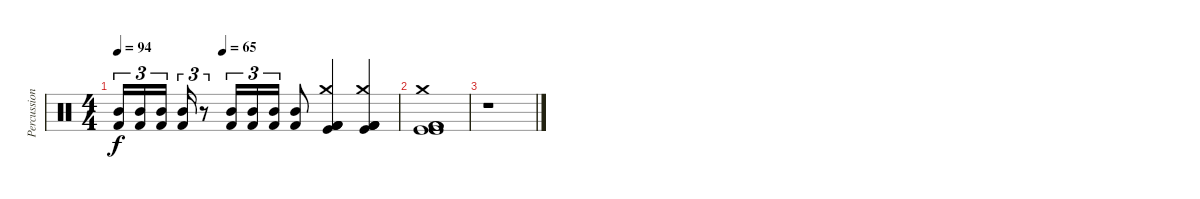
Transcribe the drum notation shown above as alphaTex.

\track ("Percussion" "Percussion") {solo instrument percussion}
\staff {score}
\articulation defaults
\ts (4 4)
\tempo 94
\tempo (65 0.375)
\clef neutral
\ks c
("Mid Tom (hit)" "Kick (hit) 2").16{tu (3 2) dy f} ("Mid Tom (hit)" "Kick (hit) 2").16{tu (3 2)} ("Mid Tom (hit)" "Kick (hit) 2").16{tu (3 2) beam splitsecondary} ("Mid Tom (hit)" "Kick (hit) 2").16{tu (3 2)} r.8{tu (3 2)} ("Mid Tom (hit)" "Kick (hit) 2").16{tu (3 2)} ("Mid Tom (hit)" "Kick (hit) 2").16{tu (3 2)} ("Mid Tom (hit)" "Kick (hit) 2").16{tu (3 2)} ("Mid Tom (hit)" "Kick (hit) 2").8 ("Kick (hit) 2" "Kick (hit) 2" "Kick (hit) 2" "Crash medium (hit)" "Kick (hit)").4 ("Kick (hit) 2" "Kick (hit) 2" "Kick (hit) 2" "Crash medium (hit)" "Kick (hit)").4 |
("Kick (hit) 2" "Kick (hit) 2" "Kick (hit) 2" "Crash medium (hit)" "Kick (hit)" "Kick (hit)").1 |
r.1
